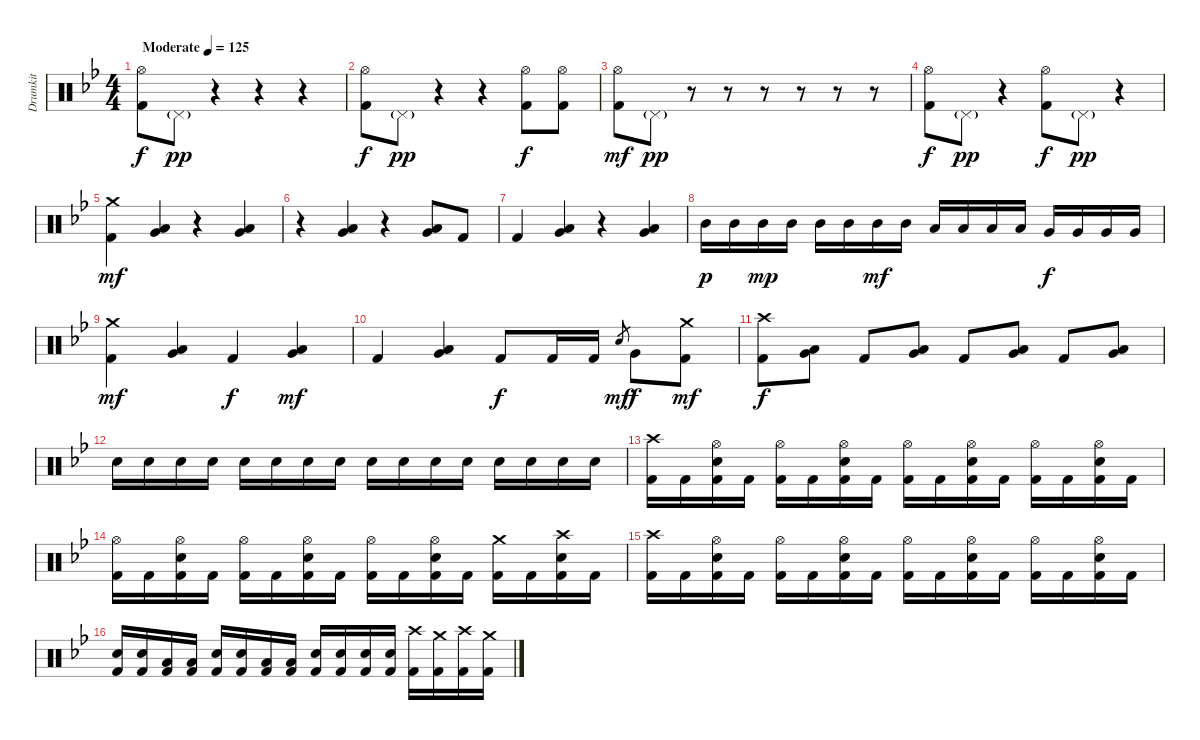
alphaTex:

\track ("Drumkit" "Drumkit") {instrument percussion}
\staff {score}
\articulation defaults
\ts (4 4)
\tempo (125 "Moderate")
\clef neutral
\ks bb
("Hi-Hat (open)" "Kick (hit) 2").8{dy f} "Pedal Hi-Hat (hit)"{g}.8{dy pp} r.4 r.4 r.4 |
("Hi-Hat (open)" "Kick (hit) 2").8{dy f} "Pedal Hi-Hat (hit)"{g}.8{dy pp} r.4 r.4 ("Hi-Hat (open)" "Kick (hit) 2").8{dy f} ("Hi-Hat (open)" "Kick (hit) 2").8 |
("Hi-Hat (open)" "Kick (hit) 2").8{dy mf} "Pedal Hi-Hat (hit)"{g}.8{dy pp} r.8 r.8 r.8 r.8 r.8 r.8 |
("Hi-Hat (open)" "Kick (hit) 2").8{dy f} "Pedal Hi-Hat (hit)"{g}.8{dy pp} r.4 ("Hi-Hat (open)" "Kick (hit) 2").8{dy f} "Pedal Hi-Hat (hit)"{g}.8{dy pp} r.4 |
("Crash medium (hit)" "Kick (hit) 2").4{dy mf} ("Low Tom (hit)" "Very Low Tom (hit)").4 r.4 ("Low Tom (hit)" "Very Low Tom (hit)").4 |
r.4 ("Low Tom (hit)" "Very Low Tom (hit)").4 r.4 ("Low Tom (hit)" "Very Low Tom (hit)").8 "Kick (hit) 2".8 |
"Kick (hit) 2".4 ("Low Tom (hit)" "Very Low Tom (hit)").4 r.4 ("Low Tom (hit)" "Very Low Tom (hit)").4 |
"Mid Tom (hit)".16{dy p} "Mid Tom (hit)".16 "Mid Tom (hit)".16{dy mp} "Mid Tom (hit)".16 "Mid Tom (hit)".16 "Mid Tom (hit)".16 "Mid Tom (hit)".16{dy mf} "Mid Tom (hit)".16 "Low Tom (hit)".16 "Low Tom (hit)".16 "Low Tom (hit)".16 "Low Tom (hit)".16 "Very Low Tom (hit)".16{dy f} "Very Low Tom (hit)".16 "Very Low Tom (hit)".16 "Very Low Tom (hit)".16 |
("Crash medium (hit)" "Kick (hit) 2").4{dy mf} ("Low Tom (hit)" "Very Low Tom (hit)").4 "Kick (hit) 2".4{dy f} ("Low Tom (hit)" "Very Low Tom (hit)").4{dy mf} |
"Kick (hit) 2".4 ("Low Tom (hit)" "Very Low Tom (hit)").4 "Kick (hit) 2".8{dy f} "Kick (hit) 2".16 "Kick (hit) 2".16 "Snare (hit)".8{gr dy mf} "Very Low Tom (hit)".8{dy f} ("Crash medium (hit)" "Kick (hit) 2").8{dy mf} |
("Crash high (hit)" "Kick (hit) 2").8{dy f} ("Low Tom (hit)" "Very Low Tom (hit)").8 "Kick (hit) 2".8 ("Low Tom (hit)" "Very Low Tom (hit)").8 "Kick (hit) 2".8 ("Low Tom (hit)" "Very Low Tom (hit)").8 "Kick (hit) 2".8 ("Low Tom (hit)" "Very Low Tom (hit)").8 |
"Snare (hit) 2".16 "Snare (hit) 2".16 "Snare (hit) 2".16 "Snare (hit) 2".16 "Snare (hit) 2".16 "Snare (hit) 2".16 "Snare (hit) 2".16 "Snare (hit) 2".16 "Snare (hit) 2".16 "Snare (hit) 2".16 "Snare (hit) 2".16 "Snare (hit) 2".16 "Snare (hit) 2".16 "Snare (hit) 2".16 "Snare (hit) 2".16 "Snare (hit) 2".16 |
("Crash high (hit)" "Kick (hit) 2").16 "Kick (hit) 2".16 ("Hi-Hat (open)" "Snare (hit) 2" "Kick (hit) 2").16 "Kick (hit) 2".16 ("Hi-Hat (open)" "Kick (hit) 2").16 "Kick (hit) 2".16 ("Hi-Hat (open)" "Snare (hit) 2" "Kick (hit) 2").16 "Kick (hit) 2".16 ("Hi-Hat (open)" "Kick (hit) 2").16 "Kick (hit) 2".16 ("Hi-Hat (open)" "Snare (hit) 2" "Kick (hit) 2").16 "Kick (hit) 2".16 ("Hi-Hat (open)" "Kick (hit) 2").16 "Kick (hit) 2".16 ("Hi-Hat (open)" "Snare (hit) 2" "Kick (hit) 2").16 "Kick (hit) 2".16 |
("Hi-Hat (open)" "Kick (hit) 2").16 "Kick (hit) 2".16 ("Hi-Hat (open)" "Snare (hit) 2" "Kick (hit) 2").16 "Kick (hit) 2".16 ("Hi-Hat (open)" "Kick (hit) 2").16 "Kick (hit) 2".16 ("Hi-Hat (open)" "Snare (hit) 2" "Kick (hit) 2").16 "Kick (hit) 2".16 ("Hi-Hat (open)" "Kick (hit) 2").16 "Kick (hit) 2".16 ("Hi-Hat (open)" "Snare (hit) 2" "Kick (hit) 2").16 "Kick (hit) 2".16 ("Crash medium (hit)" "Kick (hit) 2").16 "Kick (hit) 2".16 ("Crash high (hit)" "Snare (hit) 2" "Kick (hit) 2").16 "Kick (hit) 2".16 |
("Crash high (hit)" "Kick (hit) 2").16 "Kick (hit) 2".16 ("Hi-Hat (open)" "Snare (hit) 2" "Kick (hit) 2").16 "Kick (hit) 2".16 ("Hi-Hat (open)" "Kick (hit) 2").16 "Kick (hit) 2".16 ("Hi-Hat (open)" "Snare (hit) 2" "Kick (hit) 2").16 "Kick (hit) 2".16 ("Hi-Hat (open)" "Kick (hit) 2").16 "Kick (hit) 2".16 ("Hi-Hat (open)" "Snare (hit) 2" "Kick (hit) 2").16 "Kick (hit) 2".16 ("Hi-Hat (open)" "Kick (hit) 2").16 "Kick (hit) 2".16 ("Hi-Hat (open)" "Snare (hit) 2" "Kick (hit) 2").16 "Kick (hit) 2".16 |
("Snare (hit) 2" "Kick (hit) 2").16 ("Snare (hit) 2" "Kick (hit) 2").16 ("Low Tom (hit)" "Kick (hit) 2").16 ("Low Tom (hit)" "Kick (hit) 2").16 ("Snare (hit) 2" "Kick (hit) 2").16 ("Snare (hit) 2" "Kick (hit) 2").16 ("Low Tom (hit)" "Kick (hit) 2").16 ("Low Tom (hit)" "Kick (hit) 2").16 ("Snare (hit) 2" "Kick (hit) 2").16 ("Snare (hit) 2" "Kick (hit) 2").16 ("Snare (hit) 2" "Kick (hit) 2").16 ("Snare (hit) 2" "Kick (hit) 2").16 ("Crash high (hit)" "Kick (hit) 2").16 ("Crash medium (hit)" "Kick (hit) 2").16 ("Crash high (hit)" "Kick (hit) 2").16 ("Crash medium (hit)" "Kick (hit) 2").16
